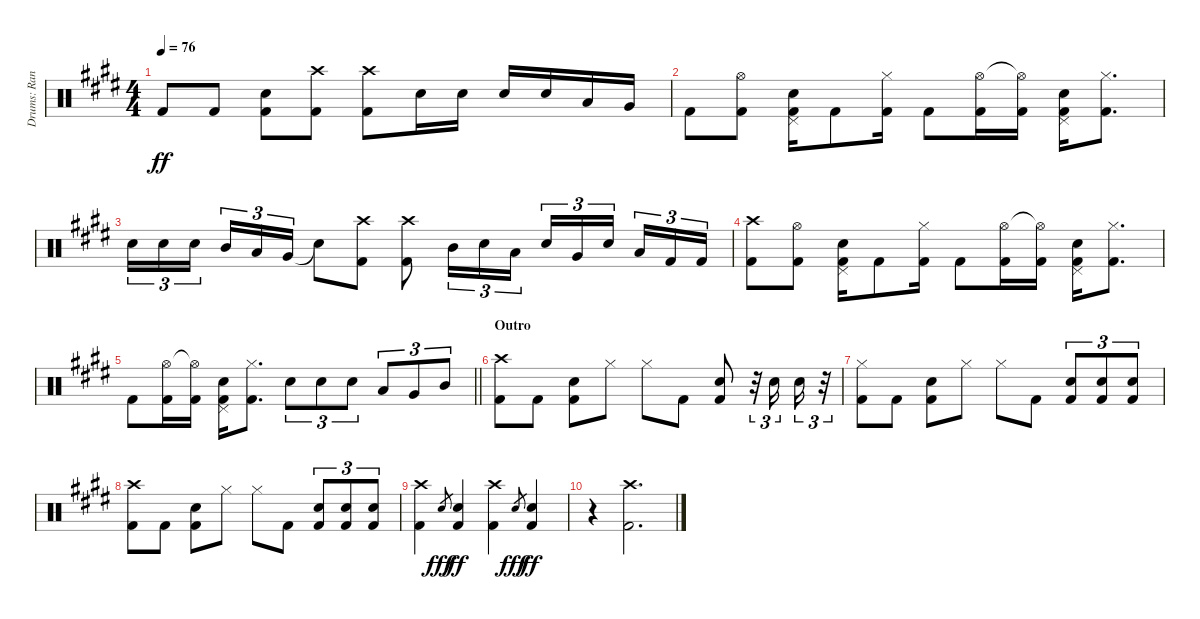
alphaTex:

\track ("Drums: Randy" "Drums: Ran") {instrument percussion}
\staff {score}
\articulation defaults
\ts (4 4)
\tempo 76
\clef neutral
\ks e "Kick (hit) 2".8{dy ff} "Kick (hit) 2".8
("Snare (hit) 2" "Kick (hit) 2").8 ("Crash high (hit)" "Kick (hit) 2").8 ("Crash high (hit)" "Kick (hit) 2").8 "Snare (hit) 2".16 "Snare (hit) 2".16 "Snare (hit) 2".16 "Snare (hit) 2".16 "Low Tom (hit)".16 "Very Low Tom (hit)".16 |
"Kick (hit) 2".8 ("Hi-Hat (open)" "Kick (hit) 2").8 ("Pedal Hi-Hat (hit)" "Snare (hit) 2" "Kick (hit) 2").16 "Kick (hit) 2".8 ("Hi-Hat (closed)" "Kick (hit) 2").16 "Kick (hit) 2".8 ("Hi-Hat (open)" "Kick (hit) 2").16 ("Hi-Hat (open)"{t} "Kick (hit) 2").16 ("Pedal Hi-Hat (hit)" "Snare (hit) 2" "Kick (hit) 2").16 ("Hi-Hat (closed)" "Kick (hit) 2").8{d} |
"Snare (hit) 2".16{tu (3 2)} "Snare (hit) 2".16{tu (3 2)} "Snare (hit) 2".16{tu (3 2) beam splitsecondary} "Mid Tom (hit)".16{tu (3 2)} "Low Tom (hit)".16{tu (3 2)} "Very Low Tom (hit)".16{tu (3 2)} "Snare (hit)"{t}.8 ("Crash high (hit)" "Kick (hit) 2").8 ("Crash high (hit)" "Kick (hit) 2").8 "Mid Tom (hit)".16{tu (3 2)} "Snare (hit) 2".16{tu (3 2)} "Low Tom (hit)".16{tu (3 2)} "Snare (hit) 2".16{tu (3 2)} "Very Low Tom (hit)".16{tu (3 2)} "Snare (hit) 2".16{tu (3 2) beam splitsecondary} "Low Floor Tom (hit)".16{tu (3 2)} "Kick (hit) 2".16{tu (3 2)} "Kick (hit) 2".16{tu (3 2)} |
("Crash high (hit)" "Kick (hit) 2").8 ("Hi-Hat (open)" "Kick (hit) 2").8 ("Pedal Hi-Hat (hit)" "Snare (hit) 2" "Kick (hit) 2").16 "Kick (hit) 2".8 ("Hi-Hat (closed)" "Kick (hit) 2").16 "Kick (hit) 2".8 ("Hi-Hat (open)" "Kick (hit) 2").16 ("Hi-Hat (open)"{t} "Kick (hit) 2").16 ("Pedal Hi-Hat (hit)" "Snare (hit) 2" "Kick (hit) 2").16 ("Hi-Hat (closed)" "Kick (hit) 2").8{d} |
\barLineRight lightlight "Kick (hit) 2".8
("Hi-Hat (open)" "Kick (hit) 2").16 ("Hi-Hat (open)"{t} "Kick (hit) 2").16 ("Pedal Hi-Hat (hit)" "Snare (hit) 2" "Kick (hit) 2").16 ("Hi-Hat (closed)" "Kick (hit) 2").8{d} "Snare (hit) 2".8{tu (3 2)} "Snare (hit) 2".8{tu (3 2)} "Snare (hit) 2".8{tu (3 2)} "Low Tom (hit)".8{tu (3 2)} "Very Low Tom (hit)".8{tu (3 2)} "Mid Tom (hit)".8{tu (3 2)} |
\section ("" "Outro")
("Crash high (hit)" "Kick (hit) 2").8 "Kick (hit) 2".8 ("Snare (hit) 2" "Kick (hit) 2").8 "Hi-Hat (closed)".8 "Hi-Hat (closed)".8 "Kick (hit) 2".8 ("Snare (hit) 2" "Kick (hit) 2").8 r.32{tu (3 2)} "Snare (hit) 2".16{tu (3 2)} "Snare (hit) 2".16{tu (3 2)} r.32{tu (3 2)} |
("Hi-Hat (closed)" "Kick (hit) 2").8 "Kick (hit) 2".8 ("Snare (hit) 2" "Kick (hit) 2").8 "Hi-Hat (closed)".8 "Hi-Hat (closed)".8 "Kick (hit) 2".8 ("Snare (hit) 2" "Kick (hit) 2").8{tu (3 2)} ("Snare (hit) 2" "Kick (hit) 2").8{tu (3 2)} ("Snare (hit) 2" "Kick (hit) 2").8{tu (3 2)} |
("Crash high (hit)" "Kick (hit) 2").8 "Kick (hit) 2".8 ("Snare (hit) 2" "Kick (hit) 2").8 "Hi-Hat (closed)".8 "Hi-Hat (closed)".8 "Kick (hit) 2".8 ("Snare (hit) 2" "Kick (hit) 2").8{tu (3 2)} ("Snare (hit) 2" "Kick (hit) 2").8{tu (3 2)} ("Snare (hit) 2" "Kick (hit) 2").8{tu (3 2)} |
("Crash high (hit)" "Kick (hit) 2").4 "Snare (hit) 2".8{gr dy fff} ("Snare (hit) 2" "Kick (hit) 2").4{dy ff} ("Crash high (hit)" "Kick (hit) 2").4 "Snare (hit) 2".8{gr dy fff} ("Snare (hit) 2" "Kick (hit) 2").4{dy ff} |
r.4 ("Crash high (hit)" "Kick (hit) 2").2{d}
